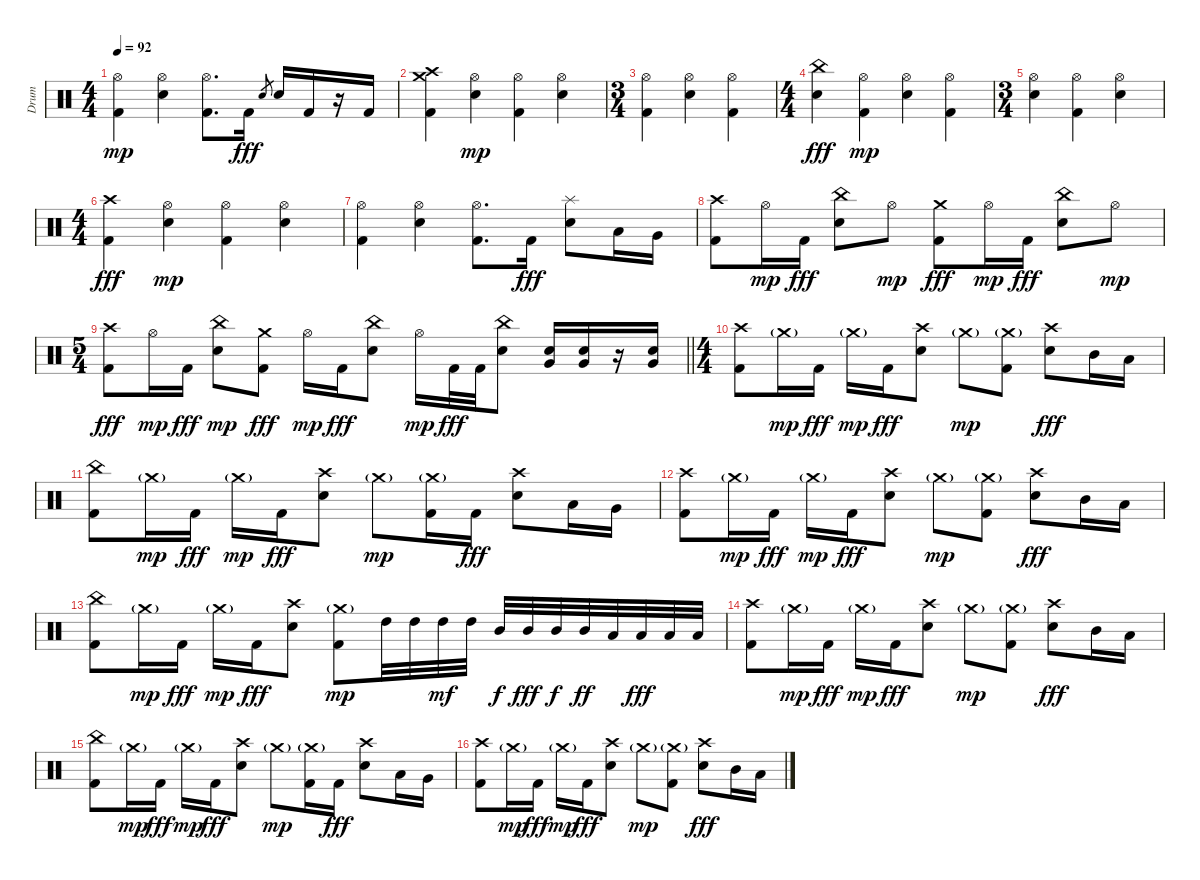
\track ("Drum" "Drum") {instrument percussion}
\staff {score}
\articulation defaults
\ts (4 4)
\tempo 92
\clef neutral
\ks c
("Kick (hit) 2" "Hi-Hat (open)").4{dy mp} ("Electric Snare (hit)" "Hi-Hat (open)").4 ("Kick (hit) 2" "Hi-Hat (open)").8{d} "Kick (hit) 2".16{dy fff} "Electric Snare (hit)".8{gr} "Electric Snare (hit)".16 "Kick (hit) 2".16 r.16 "Kick (hit) 2".16 |
("Kick (hit) 2" "Crash medium (hit)" "Crash high (hit)").4 ("Electric Snare (hit)" "Hi-Hat (open)").4{dy mp} ("Kick (hit) 2" "Hi-Hat (open)").4 ("Electric Snare (hit)" "Hi-Hat (open)").4 |
\ts (3 4)
("Kick (hit) 2" "Hi-Hat (open)").4 ("Electric Snare (hit)" "Hi-Hat (open)").4 ("Kick (hit) 2" "Hi-Hat (open)").4 |
\ts (4 4)
("Electric Snare (hit)" "China (hit)").4{dy fff} ("Kick (hit) 2" "Hi-Hat (open)").4{dy mp} ("Electric Snare (hit)" "Hi-Hat (open)").4 ("Kick (hit) 2" "Hi-Hat (open)").4 |
\ts (3 4)
("Electric Snare (hit)" "Hi-Hat (open)").4 ("Kick (hit) 2" "Hi-Hat (open)").4 ("Electric Snare (hit)" "Hi-Hat (open)").4 |
\ts (4 4)
("Kick (hit) 2" "Crash high (hit)").4{dy fff} ("Electric Snare (hit)" "Hi-Hat (open)").4{dy mp} ("Kick (hit) 2" "Hi-Hat (open)").4 ("Electric Snare (hit)" "Hi-Hat (open)").4 |
("Kick (hit) 2" "Hi-Hat (open)").4 ("Electric Snare (hit)" "Hi-Hat (open)").4 ("Kick (hit) 2" "Hi-Hat (open)").8{d} "Kick (hit) 2".16{dy fff} ("Electric Snare (hit)" "Splash (hit)").8 "Low Tom (hit)".16 "Very Low Tom (hit)".16 |
("Kick (hit) 2" "Crash high (hit)").8 "Hi-Hat (open)".16{dy mp} "Kick (hit) 2".16{dy fff} ("Electric Snare (hit)" "China (hit)").8 "Hi-Hat (open)".8{dy mp} ("Kick (hit) 2" "Crash medium (hit)").8{dy fff} "Hi-Hat (open)".16{dy mp} "Kick (hit) 2".16{dy fff} ("Electric Snare (hit)" "China (hit)").8 "Hi-Hat (open)".8{dy mp} |
\ts (5 4)
\barLineRight lightlight
("Kick (hit) 2" "Crash high (hit)").8{dy fff} "Hi-Hat (open)".16{dy mp} "Kick (hit) 2".16{dy fff} ("Electric Snare (hit)" "China (hit)").8{dy mp} ("Kick (hit) 2" "Crash medium (hit)").8{dy fff} "Hi-Hat (open)".16{dy mp} "Kick (hit) 2".16{dy fff} ("Electric Snare (hit)" "China (hit)").8 "Hi-Hat (open)".16{dy mp} "Kick (hit) 2".32{dy fff} "Kick (hit) 2".32 ("Electric Snare (hit)" "China (hit)").8 ("Electric Snare (hit)" "Very Low Tom (hit)").16 ("Electric Snare (hit)" "Very Low Tom (hit)").16 r.16 ("Electric Snare (hit)" "Very Low Tom (hit)").16 |
\ts (4 4)
("Kick (hit) 2" "Crash high (hit)").8 "Crash medium (hit)"{g}.16{dy mp} "Kick (hit) 2".16{dy fff} "Crash medium (hit)"{g}.16{dy mp} "Kick (hit) 2".16{dy fff} ("Electric Snare (hit)" "Crash high (hit)").8 "Crash medium (hit)"{g}.8{dy mp} ("Kick (hit) 2" "Crash medium (hit)"{g}).8 ("Electric Snare (hit)" "Crash high (hit)").8{dy fff} "Mid Tom (hit)".16 "Low Tom (hit)".16 |
("Kick (hit) 2" "China (hit)").8 "Crash medium (hit)"{g}.16{dy mp} "Kick (hit) 2".16{dy fff} "Crash medium (hit)"{g}.16{dy mp} "Kick (hit) 2".16{dy fff} ("Electric Snare (hit)" "Crash high (hit)").8 "Crash medium (hit)"{g}.8{dy mp} ("Kick (hit) 2" "Crash medium (hit)"{g}).16 "Kick (hit) 2".16{dy fff} ("Electric Snare (hit)" "Crash high (hit)").8 "Low Tom (hit)".16 "Very Low Tom (hit)".16 |
("Kick (hit) 2" "Crash high (hit)").8 "Crash medium (hit)"{g}.16{dy mp} "Kick (hit) 2".16{dy fff} "Crash medium (hit)"{g}.16{dy mp} "Kick (hit) 2".16{dy fff} ("Electric Snare (hit)" "Crash high (hit)").8 "Crash medium (hit)"{g}.8{dy mp} ("Kick (hit) 2" "Crash medium (hit)"{g}).8 ("Electric Snare (hit)" "Crash high (hit)").8{dy fff} "Mid Tom (hit)".16 "Low Tom (hit)".16 |
("Kick (hit) 2" "China (hit)").8 "Crash medium (hit)"{g}.16{dy mp} "Kick (hit) 2".16{dy fff} "Crash medium (hit)"{g}.16{dy mp} "Kick (hit) 2".16{dy fff} ("Electric Snare (hit)" "Crash high (hit)").8 ("Kick (hit) 2" "Crash medium (hit)"{g}).8{dy mp} "High Tom (hit)".32 "High Tom (hit)".32 "High Tom (hit)".32{dy mf} "High Tom (hit)".32 "Mid Tom (hit)".32{dy f} "Mid Tom (hit)".32{dy fff} "Mid Tom (hit)".32{dy f} "Mid Tom (hit)".32{dy ff} "Low Tom (hit)".32 "Low Tom (hit)".32{dy fff} "Low Tom (hit)".32 "Low Tom (hit)".32 |
("Kick (hit) 2" "Crash high (hit)").8 "Crash medium (hit)"{g}.16{dy mp} "Kick (hit) 2".16{dy fff} "Crash medium (hit)"{g}.16{dy mp} "Kick (hit) 2".16{dy fff} ("Electric Snare (hit)" "Crash high (hit)").8 "Crash medium (hit)"{g}.8{dy mp} ("Kick (hit) 2" "Crash medium (hit)"{g}).8 ("Electric Snare (hit)" "Crash high (hit)").8{dy fff} "Mid Tom (hit)".16 "Low Tom (hit)".16 |
("Kick (hit) 2" "China (hit)").8 "Crash medium (hit)"{g}.16{dy mp} "Kick (hit) 2".16{dy fff} "Crash medium (hit)"{g}.16{dy mp} "Kick (hit) 2".16{dy fff} ("Electric Snare (hit)" "Crash high (hit)").8 "Crash medium (hit)"{g}.8{dy mp} ("Kick (hit) 2" "Crash medium (hit)"{g}).16 "Kick (hit) 2".16{dy fff} ("Electric Snare (hit)" "Crash high (hit)").8 "Low Tom (hit)".16 "Very Low Tom (hit)".16 |
("Kick (hit) 2" "Crash high (hit)").8 "Crash medium (hit)"{g}.16{dy mp} "Kick (hit) 2".16{dy fff} "Crash medium (hit)"{g}.16{dy mp} "Kick (hit) 2".16{dy fff} ("Electric Snare (hit)" "Crash high (hit)").8 "Crash medium (hit)"{g}.8{dy mp} ("Kick (hit) 2" "Crash medium (hit)"{g}).8 ("Electric Snare (hit)" "Crash high (hit)").8{dy fff} "Mid Tom (hit)".16 "Low Tom (hit)".16
